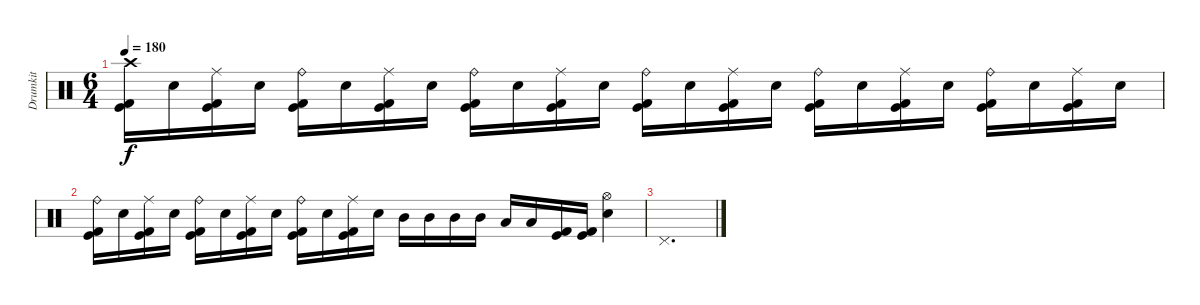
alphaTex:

\track ("Drumkit" "Drumkit") {instrument percussion}
\staff {score}
\articulation defaults
\ts (6 4)
\tempo 180
\clef neutral
\ks c
("Crash high (hit)" "Kick (hit)" "Kick (hit) 2").16{dy f} "Electric Snare (hit)".16 ("Ride (middle)" "Kick (hit)" "Kick (hit) 2").16 "Electric Snare (hit)".16 ("Ride (bell)" "Kick (hit)" "Kick (hit) 2").16 "Electric Snare (hit)".16 ("Ride (middle)" "Kick (hit)" "Kick (hit) 2").16 "Electric Snare (hit)".16 ("Ride (bell)" "Kick (hit)" "Kick (hit) 2").16 "Electric Snare (hit)".16 ("Ride (middle)" "Kick (hit)" "Kick (hit) 2").16 "Electric Snare (hit)".16 ("Ride (bell)" "Kick (hit)" "Kick (hit) 2").16 "Electric Snare (hit)".16 ("Ride (middle)" "Kick (hit)" "Kick (hit) 2").16 "Electric Snare (hit)".16 ("Ride (bell)" "Kick (hit)" "Kick (hit) 2").16 "Electric Snare (hit)".16 ("Ride (middle)" "Kick (hit)" "Kick (hit) 2").16 "Electric Snare (hit)".16 ("Ride (bell)" "Kick (hit)" "Kick (hit) 2").16 "Electric Snare (hit)".16 ("Ride (middle)" "Kick (hit)" "Kick (hit) 2").16 "Electric Snare (hit)".16 |
("Ride (bell)" "Kick (hit)" "Kick (hit) 2").16 "Electric Snare (hit)".16 ("Ride (middle)" "Kick (hit)" "Kick (hit) 2").16 "Electric Snare (hit)".16 ("Ride (bell)" "Kick (hit)" "Kick (hit) 2").16 "Electric Snare (hit)".16 ("Ride (middle)" "Kick (hit)" "Kick (hit) 2").16 "Electric Snare (hit)".16 ("Ride (bell)" "Kick (hit)" "Kick (hit) 2").16 "Electric Snare (hit)".16 ("Ride (middle)" "Kick (hit)" "Kick (hit) 2").16 "Electric Snare (hit)".16 "Mid Tom (hit)".16 "Mid Tom (hit)".16 "Mid Tom (hit)".16 "Mid Tom (hit)".16 "Low Tom (hit)".16 "Low Tom (hit)".16 ("Kick (hit)" "Kick (hit) 2").16 ("Kick (hit)" "Kick (hit) 2").16 ("Hi-Hat (open)" "Electric Snare (hit)").4 |
"Pedal Hi-Hat (hit)".1{d}
